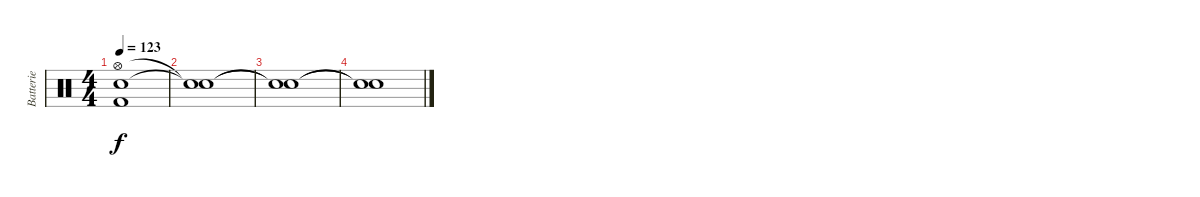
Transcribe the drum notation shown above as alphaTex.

\track ("Batterie" "Batterie") {instrument percussion}
\staff {score}
\articulation defaults
\ts (4 4)
\tempo 123
\clef neutral
\ks c
("Hi-Hat (open)" "Snare (hit) 2" "Kick (hit) 2").1{dy f} |
("Snare (hit)"{t} "Snare (hit)"{t}).1 |
("Snare (hit)"{t} "Snare (hit)"{t}).1 |
("Snare (hit)"{t} "Snare (hit)"{t}).1
